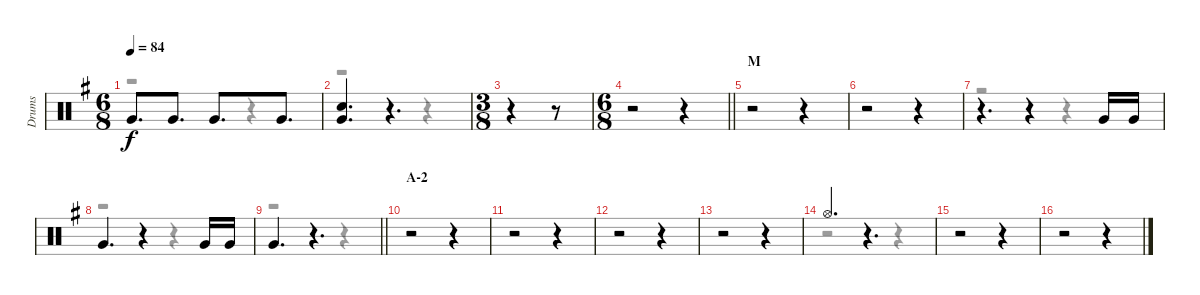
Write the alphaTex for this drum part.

\track ("Drums" "Drums") {instrument percussion}
\staff {score}
\articulation defaults
\voice
\ts (6 8)
\tempo 84
\clef neutral
\ks g "Very Low Tom (hit)".8{d dy f} "Very Low Tom (hit)".8{d} "Very Low Tom (hit)".8{d} "Very Low Tom (hit)".8{d}
|
("Snare (hit) 2" "Very Low Tom (hit)").4{d} r.4{d} |
\ts (3 8)
r.4 r.8 |
\ts (6 8)
\barLineRight lightlight
r.2 r.4 |
\section ("" "M")
r.2 r.4 |
r.2 r.4 |
r.4{d} r.4 "Very Low Tom (hit)".16 "Very Low Tom (hit)".16 |
"Very Low Tom (hit)".4{d} r.4 "Very Low Tom (hit)".16 "Very Low Tom (hit)".16 |
\barLineRight lightlight "Very Low Tom (hit)".4{d}
r.4{d} |
\section ("" "A-2")
r.2 r.4 |
r.2 r.4 |
r.2 r.4 |
r.2 r.4 |
"Hi-Hat (open)".4{d} r.4{d} |
r.2 r.4 |
r.2 r.4
\voice
\clef neutral
\ottava regular
\simile none
\ks g
r.2{dy fff} r.4 |
r.2 r.4 |
r.4 r.8 |
\barLineRight lightlight
r.2 r.4 |
r.2 r.4 |
r.2 r.4 |
r.2 r.4 |
r.2 r.4 |
\barLineRight lightlight
r.2 r.4 |
r.2 r.4 |
r.2 r.4 |
r.2 r.4 |
r.2 r.4 |
r.2 r.4 |
r.2 r.4 |
r.2 r.4
